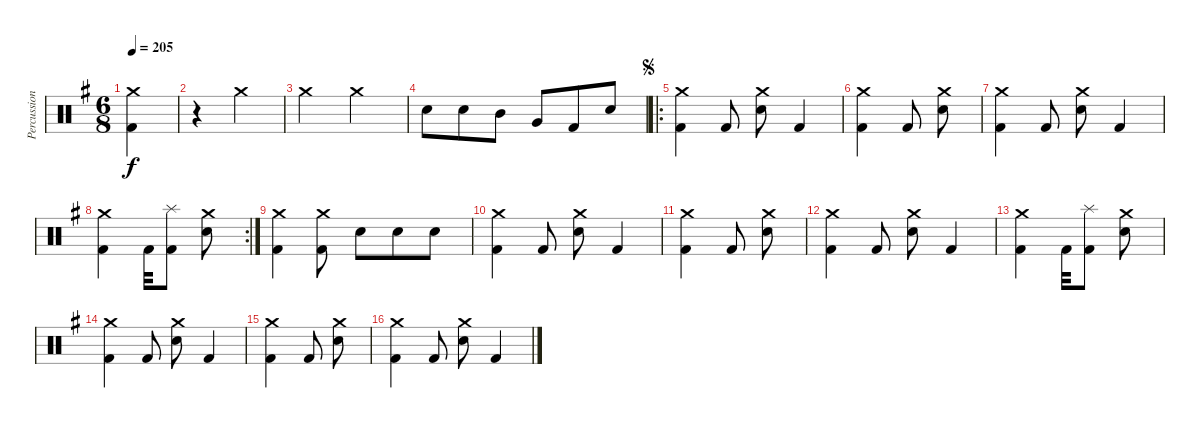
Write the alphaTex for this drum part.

\track ("Percussion" "Percussion") {instrument percussion}
\staff {score}
\articulation defaults
\ts (6 8)
\tempo 205
\clef neutral
\ks g
("Crash medium (hit)" "Kick (hit) 2").4{dy f} |
r.4 "Crash medium (hit)".4 |
"Crash medium (hit)".2 "Crash medium (hit)".2 |
"Electric Snare (hit)".8 "Electric Snare (hit)".8 "Mid Tom (hit)".8 "Very Low Tom (hit)".8 "Kick (hit) 2".8 "Electric Snare (hit)".8 |
\ro
\jump segno
("Crash medium (hit)" "Kick (hit) 2").4 "Kick (hit) 2".8 ("Crash medium (hit)" "Electric Snare (hit)").8 "Kick (hit) 2".4 |
("Crash medium (hit)" "Kick (hit) 2").4 "Kick (hit) 2".8 ("Crash medium (hit)" "Electric Snare (hit)").8 |
("Crash medium (hit)" "Kick (hit) 2").4 "Kick (hit) 2".8 ("Crash medium (hit)" "Electric Snare (hit)").8 "Kick (hit) 2".4 |
\rc 2
("Crash medium (hit)" "Kick (hit) 2").4 "Kick (hit) 2".32 ("Splash (hit)" "Kick (hit) 2").8 ("Crash medium (hit)" "Electric Snare (hit)").8 |
("Crash medium (hit)" "Kick (hit) 2").4 ("Crash medium (hit)" "Kick (hit) 2").8 "Electric Snare (hit)".8 "Electric Snare (hit)".8 "Electric Snare (hit)".8 |
("Crash medium (hit)" "Kick (hit) 2").4 "Kick (hit) 2".8 ("Crash medium (hit)" "Electric Snare (hit)").8 "Kick (hit) 2".4 |
("Crash medium (hit)" "Kick (hit) 2").4 "Kick (hit) 2".8 ("Crash medium (hit)" "Electric Snare (hit)").8 |
("Crash medium (hit)" "Kick (hit) 2").4 "Kick (hit) 2".8 ("Crash medium (hit)" "Electric Snare (hit)").8 "Kick (hit) 2".4 |
("Crash medium (hit)" "Kick (hit) 2").4 "Kick (hit) 2".32 ("Splash (hit)" "Kick (hit) 2").8 ("Crash medium (hit)" "Electric Snare (hit)").8 |
("Crash medium (hit)" "Kick (hit) 2").4 "Kick (hit) 2".8 ("Crash medium (hit)" "Electric Snare (hit)").8 "Kick (hit) 2".4 |
("Crash medium (hit)" "Kick (hit) 2").4 "Kick (hit) 2".8 ("Crash medium (hit)" "Electric Snare (hit)").8 |
("Crash medium (hit)" "Kick (hit) 2").4 "Kick (hit) 2".8 ("Crash medium (hit)" "Electric Snare (hit)").8 "Kick (hit) 2".4
